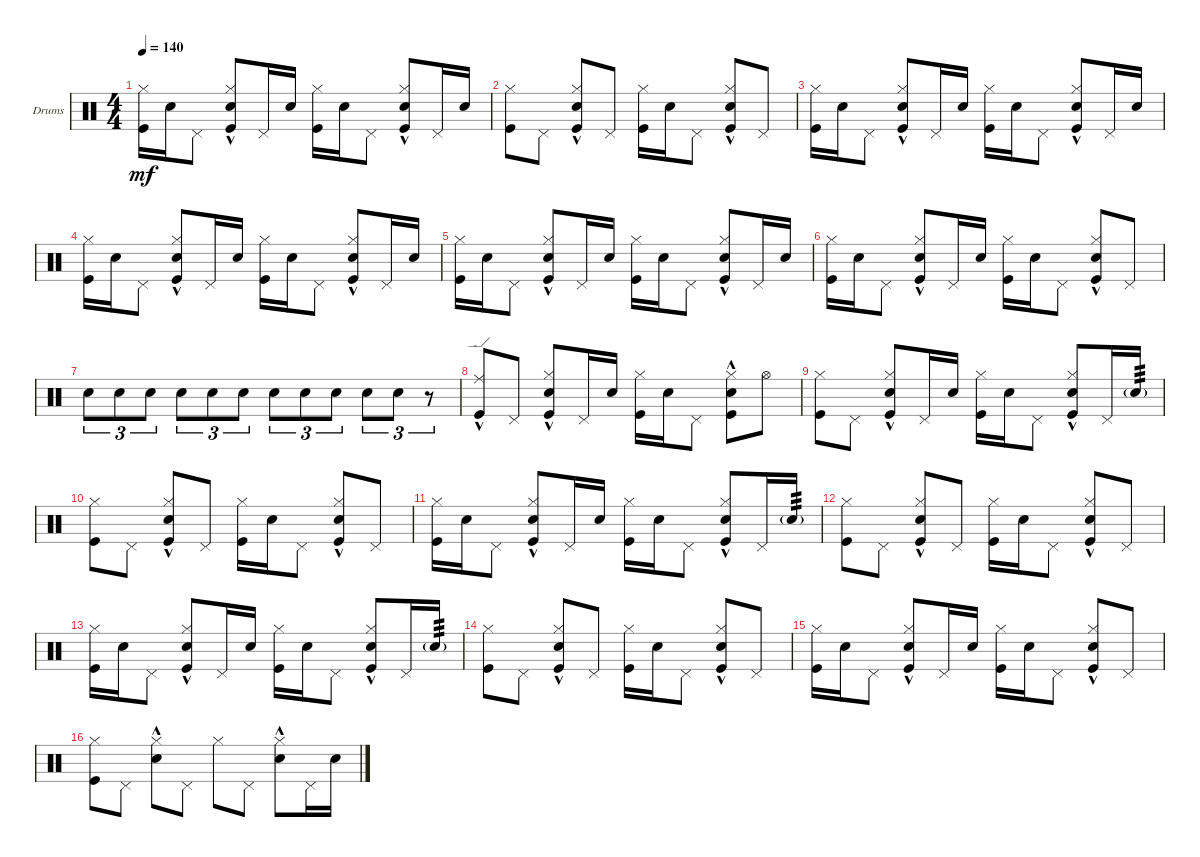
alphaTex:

\defaultSystemsLayout 4
\bracketExtendMode groupsimilarinstruments
\firstSystemTrackNameOrientation horizontal
\otherSystemsTrackNameOrientation horizontal
\track ("Drumkit" "Drums") {instrument percussion}
\staff {score}
\articulation defaults
\ts (4 4)
\tempo 140
\clef neutral
\scale
0.258222
\ks c
("Kick (hit)" "Hi-Hat (closed)").16{dy mf} "Snare (hit) 2".16 "Pedal Hi-Hat (hit)".8 ("Hi-Hat (closed)" "Kick (hit)" "Snare (hit) 2"{hac}).8 "Pedal Hi-Hat (hit)".16 "Snare (hit) 2".16 ("Kick (hit)" "Hi-Hat (closed)").16 "Snare (hit) 2".16 "Pedal Hi-Hat (hit)".8 ("Hi-Hat (closed)" "Kick (hit)" "Snare (hit) 2"{hac}).8 "Pedal Hi-Hat (hit)".16 "Snare (hit) 2".16 |
\scale
0.225335 ("Kick (hit)" "Hi-Hat (closed)").8 "Pedal Hi-Hat (hit)".8 ("Hi-Hat (closed)" "Kick (hit)" "Snare (hit) 2"{hac}).8 "Pedal Hi-Hat (hit)".8 ("Kick (hit)" "Hi-Hat (closed)").16 "Snare (hit) 2".16 "Pedal Hi-Hat (hit)".8 ("Hi-Hat (closed)" "Kick (hit)" "Snare (hit) 2"{hac}).8 "Pedal Hi-Hat (hit)".8 |
\scale
0.258222 ("Kick (hit)" "Hi-Hat (closed)").16 "Snare (hit) 2".16 "Pedal Hi-Hat (hit)".8 ("Hi-Hat (closed)" "Kick (hit)" "Snare (hit) 2"{hac}).8 "Pedal Hi-Hat (hit)".16 "Snare (hit) 2".16 ("Kick (hit)" "Hi-Hat (closed)").16 "Snare (hit) 2".16 "Pedal Hi-Hat (hit)".8 ("Hi-Hat (closed)" "Kick (hit)" "Snare (hit) 2"{hac}).8 "Pedal Hi-Hat (hit)".16 "Snare (hit) 2".16 |
\scale
0.258222 ("Kick (hit)" "Hi-Hat (closed)").16 "Snare (hit) 2".16 "Pedal Hi-Hat (hit)".8 ("Hi-Hat (closed)" "Kick (hit)" "Snare (hit) 2"{hac}).8 "Pedal Hi-Hat (hit)".16 "Snare (hit) 2".16 ("Kick (hit)" "Hi-Hat (closed)").16 "Snare (hit) 2".16 "Pedal Hi-Hat (hit)".8 ("Hi-Hat (closed)" "Kick (hit)" "Snare (hit) 2"{hac}).8 "Pedal Hi-Hat (hit)".16 "Snare (hit) 2".16 |
\scale
0.329705 ("Kick (hit)" "Hi-Hat (closed)").16 "Snare (hit) 2".16 "Pedal Hi-Hat (hit)".8 ("Hi-Hat (closed)" "Kick (hit)" "Snare (hit) 2"{hac}).8 "Pedal Hi-Hat (hit)".16 "Snare (hit) 2".16 ("Kick (hit)" "Hi-Hat (closed)").16 "Snare (hit) 2".16 "Pedal Hi-Hat (hit)".8 ("Hi-Hat (closed)" "Kick (hit)" "Snare (hit) 2"{hac}).8 "Pedal Hi-Hat (hit)".16 "Snare (hit) 2".16 |
\scale
0.315708 ("Kick (hit)" "Hi-Hat (closed)").16 "Snare (hit) 2".16 "Pedal Hi-Hat (hit)".8 ("Hi-Hat (closed)" "Kick (hit)" "Snare (hit) 2"{hac}).8 "Pedal Hi-Hat (hit)".16 "Snare (hit) 2".16 ("Kick (hit)" "Hi-Hat (closed)").16 "Snare (hit) 2".16 "Pedal Hi-Hat (hit)".8 ("Hi-Hat (closed)" "Kick (hit)" "Snare (hit) 2"{hac}).8 "Pedal Hi-Hat (hit)".8 |
"Snare (hit) 2".8{tu (3 2)} "Snare (hit) 2".8{tu (3 2)} "Snare (hit) 2".8{tu (3 2)} "Snare (hit) 2".8{tu (3 2)} "Snare (hit) 2".8{tu (3 2)} "Snare (hit) 2".8{tu (3 2)} "Snare (hit) 2".8{tu (3 2)} "Snare (hit) 2".8{tu (3 2)} "Snare (hit) 2".8{tu (3 2)} "Snare (hit) 2".8{tu (3 2)} "Snare (hit) 2".8{tu (3 2)} r.8{tu (3 2)} |
("Kick (hit)" "Ride (edge)"{hac}).8 "Pedal Hi-Hat (hit)".8 ("Hi-Hat (closed)" "Kick (hit)" "Snare (hit) 2"{hac}).8 "Pedal Hi-Hat (hit)".16 "Snare (hit) 2".16 ("Kick (hit)" "Hi-Hat (closed)").16 "Snare (hit) 2".16 "Pedal Hi-Hat (hit)".8 ("Hi-Hat (closed)" "Kick (hit)" "Snare (hit) 2"{hac}).8 "Hi-Hat (open)".8 |
("Kick (hit)" "Hi-Hat (closed)").8 "Pedal Hi-Hat (hit)".8 ("Hi-Hat (closed)" "Kick (hit)" "Snare (hit) 2"{hac}).8 "Pedal Hi-Hat (hit)".16 "Snare (hit) 2".16 ("Kick (hit)" "Hi-Hat (closed)").16 "Snare (hit) 2".16 "Pedal Hi-Hat (hit)".8 ("Hi-Hat (closed)" "Kick (hit)" "Snare (hit) 2"{hac}).8 "Pedal Hi-Hat (hit)".16 "Snare (hit) 2"{g}.16{tp 3} |
("Kick (hit)" "Hi-Hat (closed)").8 "Pedal Hi-Hat (hit)".8 ("Hi-Hat (closed)" "Kick (hit)" "Snare (hit) 2"{hac}).8 "Pedal Hi-Hat (hit)".8 ("Kick (hit)" "Hi-Hat (closed)").16 "Snare (hit) 2".16 "Pedal Hi-Hat (hit)".8 ("Hi-Hat (closed)" "Kick (hit)" "Snare (hit) 2"{hac}).8 "Pedal Hi-Hat (hit)".8 |
("Kick (hit)" "Hi-Hat (closed)").16 "Snare (hit) 2".16 "Pedal Hi-Hat (hit)".8 ("Hi-Hat (closed)" "Kick (hit)" "Snare (hit) 2"{hac}).8 "Pedal Hi-Hat (hit)".16 "Snare (hit) 2".16 ("Kick (hit)" "Hi-Hat (closed)").16 "Snare (hit) 2".16 "Pedal Hi-Hat (hit)".8 ("Hi-Hat (closed)" "Kick (hit)" "Snare (hit) 2"{hac}).8 "Pedal Hi-Hat (hit)".16 "Snare (hit) 2"{g}.16{tp 3} |
("Kick (hit)" "Hi-Hat (closed)").8 "Pedal Hi-Hat (hit)".8 ("Hi-Hat (closed)" "Kick (hit)" "Snare (hit) 2"{hac}).8 "Pedal Hi-Hat (hit)".8 ("Kick (hit)" "Hi-Hat (closed)").16 "Snare (hit) 2".16 "Pedal Hi-Hat (hit)".8 ("Hi-Hat (closed)" "Kick (hit)" "Snare (hit) 2"{hac}).8 "Pedal Hi-Hat (hit)".8 |
("Kick (hit)" "Hi-Hat (closed)").16 "Snare (hit) 2".16 "Pedal Hi-Hat (hit)".8 ("Hi-Hat (closed)" "Kick (hit)" "Snare (hit) 2"{hac}).8 "Pedal Hi-Hat (hit)".16 "Snare (hit) 2".16 ("Kick (hit)" "Hi-Hat (closed)").16 "Snare (hit) 2".16 "Pedal Hi-Hat (hit)".8 ("Hi-Hat (closed)" "Kick (hit)" "Snare (hit) 2"{hac}).8 "Pedal Hi-Hat (hit)".16 "Snare (hit) 2"{g}.16{tp 3} |
("Kick (hit)" "Hi-Hat (closed)").8 "Pedal Hi-Hat (hit)".8 ("Hi-Hat (closed)" "Kick (hit)" "Snare (hit) 2"{hac}).8 "Pedal Hi-Hat (hit)".8 ("Kick (hit)" "Hi-Hat (closed)").16 "Snare (hit) 2".16 "Pedal Hi-Hat (hit)".8 ("Hi-Hat (closed)" "Kick (hit)" "Snare (hit) 2"{hac}).8 "Pedal Hi-Hat (hit)".8 |
("Kick (hit)" "Hi-Hat (closed)").16 "Snare (hit) 2".16 "Pedal Hi-Hat (hit)".8 ("Hi-Hat (closed)" "Kick (hit)" "Snare (hit) 2"{hac}).8 "Pedal Hi-Hat (hit)".16 "Snare (hit) 2".16 ("Kick (hit)" "Hi-Hat (closed)").16 "Snare (hit) 2".16 "Pedal Hi-Hat (hit)".8 ("Hi-Hat (closed)" "Kick (hit)" "Snare (hit) 2"{hac}).8 "Pedal Hi-Hat (hit)".8 |
("Kick (hit)" "Hi-Hat (closed)").8 "Pedal Hi-Hat (hit)".8 ("Hi-Hat (closed)" "Snare (hit) 2"{hac}).8 "Pedal Hi-Hat (hit)".8 "Hi-Hat (closed)".8 "Pedal Hi-Hat (hit)".8 ("Hi-Hat (closed)" "Snare (hit) 2"{hac}).8 "Pedal Hi-Hat (hit)".16 "Snare (hit) 2".16
